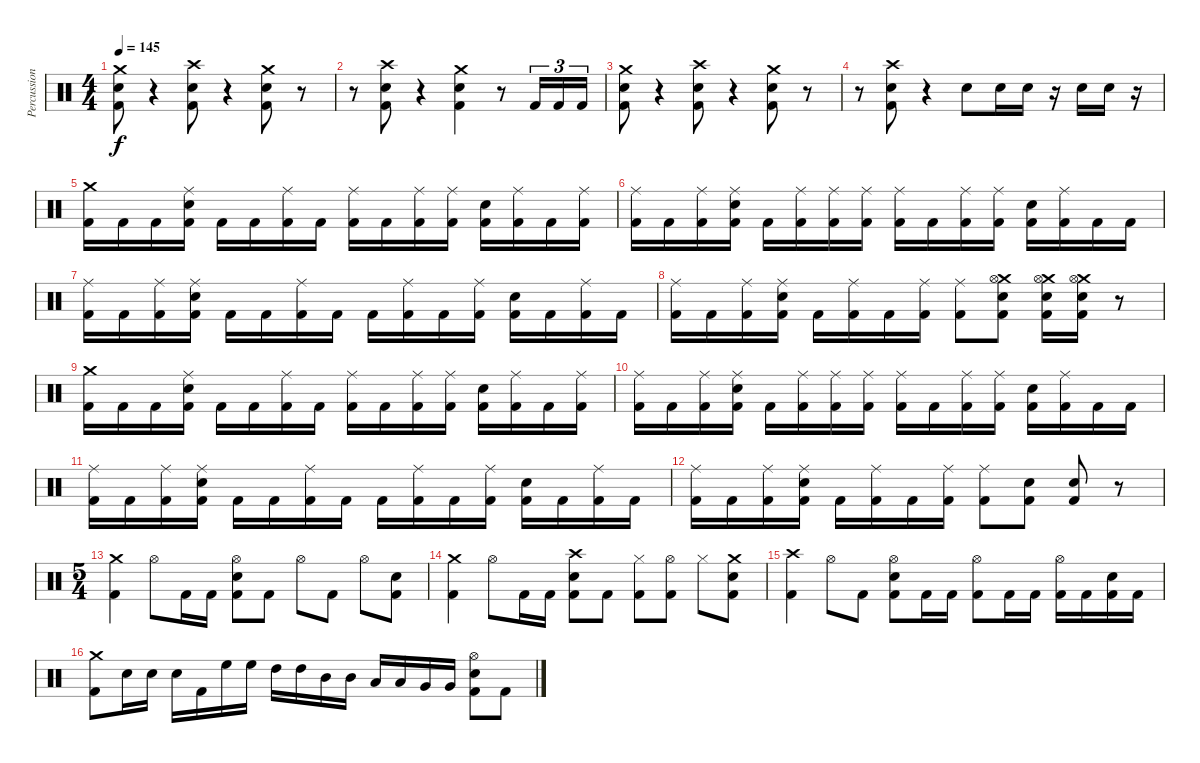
\track ("Percussion" "Percussion") {instrument percussion}
\staff {score}
\articulation defaults
\ts (4 4)
\tempo 145
\clef neutral
\ks c
("Crash medium (hit)" "Electric Snare (hit)" "Kick (hit) 2").8{dy f} r.4 ("Crash high (hit)" "Electric Snare (hit)" "Kick (hit) 2").8 r.4 ("Crash medium (hit)" "Electric Snare (hit)" "Kick (hit) 2").8 r.8 |
r.8 ("Crash high (hit)" "Electric Snare (hit)" "Kick (hit) 2").8 r.4 ("Crash medium (hit)" "Electric Snare (hit)" "Kick (hit) 2").4 r.8 "Kick (hit) 2".16{tu (3 2)} "Kick (hit) 2".16{tu (3 2)} "Kick (hit) 2".16{tu (3 2)} |
("Crash medium (hit)" "Electric Snare (hit)" "Kick (hit) 2").8 r.4 ("Crash high (hit)" "Electric Snare (hit)" "Kick (hit) 2").8 r.4 ("Crash medium (hit)" "Electric Snare (hit)" "Kick (hit) 2").8 r.8 |
r.8 ("Crash high (hit)" "Electric Snare (hit)" "Kick (hit) 2").8 r.4 "Electric Snare (hit)".8 "Electric Snare (hit)".16 "Electric Snare (hit)".16 r.16 "Electric Snare (hit)".16 "Electric Snare (hit)".16 r.16 |
("Crash medium (hit)" "Kick (hit) 2").16 "Kick (hit) 2".16 "Kick (hit) 2".16 ("Ride (middle)" "Electric Snare (hit)" "Kick (hit) 2").16 "Kick (hit) 2".16 "Kick (hit) 2".16 ("Ride (middle)" "Kick (hit) 2").16 "Kick (hit) 2".16 ("Ride (middle)" "Kick (hit) 2").16 "Kick (hit) 2".16 ("Ride (middle)" "Kick (hit) 2").16 ("Ride (middle)" "Kick (hit) 2").16 ("Electric Snare (hit)" "Kick (hit) 2").16 ("Ride (middle)" "Kick (hit) 2").16 "Kick (hit) 2".16 ("Ride (middle)" "Kick (hit) 2").16 |
("Ride (middle)" "Kick (hit) 2").16 "Kick (hit) 2".16 ("Ride (middle)" "Kick (hit) 2").16 ("Ride (middle)" "Electric Snare (hit)" "Kick (hit) 2").16 "Kick (hit) 2".16 ("Ride (middle)" "Kick (hit) 2").16 ("Ride (middle)" "Kick (hit) 2").16 ("Ride (middle)" "Kick (hit) 2").16 ("Ride (middle)" "Kick (hit) 2").16 "Kick (hit) 2".16 ("Ride (middle)" "Kick (hit) 2").16 ("Ride (middle)" "Kick (hit) 2").16 ("Electric Snare (hit)" "Kick (hit) 2").16 ("Ride (middle)" "Kick (hit) 2").16 "Kick (hit) 2".16 "Kick (hit) 2".16 |
("Ride (middle)" "Kick (hit) 2").16 "Kick (hit) 2".16 ("Ride (middle)" "Kick (hit) 2").16 ("Ride (middle)" "Electric Snare (hit)" "Kick (hit) 2").16 "Kick (hit) 2".16 "Kick (hit) 2".16 ("Ride (middle)" "Kick (hit) 2").16 "Kick (hit) 2".16 "Kick (hit) 2".16 ("Ride (middle)" "Kick (hit) 2").16 "Kick (hit) 2".16 ("Ride (middle)" "Kick (hit) 2").16 ("Electric Snare (hit)" "Kick (hit) 2").16 "Kick (hit) 2".16 ("Ride (middle)" "Kick (hit) 2").16 "Kick (hit) 2".16 |
("Ride (middle)" "Kick (hit) 2").16 "Kick (hit) 2".16 ("Ride (middle)" "Kick (hit) 2").16 ("Ride (middle)" "Electric Snare (hit)" "Kick (hit) 2").16 "Kick (hit) 2".16 ("Ride (middle)" "Kick (hit) 2").16 "Kick (hit) 2".16 ("Ride (middle)" "Kick (hit) 2").16 ("Ride (middle)" "Kick (hit) 2").8 ("Crash medium (hit)" "Hi-Hat (open)" "Electric Snare (hit)" "Kick (hit) 2").8 ("Crash medium (hit)" "Hi-Hat (open)" "Electric Snare (hit)" "Kick (hit) 2").16 ("Crash medium (hit)" "Hi-Hat (open)" "Electric Snare (hit)" "Kick (hit) 2").16 r.8 |
("Crash medium (hit)" "Kick (hit) 2").16 "Kick (hit) 2".16 "Kick (hit) 2".16 ("Ride (middle)" "Electric Snare (hit)" "Kick (hit) 2").16 "Kick (hit) 2".16 "Kick (hit) 2".16 ("Ride (middle)" "Kick (hit) 2").16 "Kick (hit) 2".16 ("Ride (middle)" "Kick (hit) 2").16 "Kick (hit) 2".16 ("Ride (middle)" "Kick (hit) 2").16 ("Ride (middle)" "Kick (hit) 2").16 ("Electric Snare (hit)" "Kick (hit) 2").16 ("Ride (middle)" "Kick (hit) 2").16 "Kick (hit) 2".16 ("Ride (middle)" "Kick (hit) 2").16 |
("Ride (middle)" "Kick (hit) 2").16 "Kick (hit) 2".16 ("Ride (middle)" "Kick (hit) 2").16 ("Ride (middle)" "Electric Snare (hit)" "Kick (hit) 2").16 "Kick (hit) 2".16 ("Ride (middle)" "Kick (hit) 2").16 ("Ride (middle)" "Kick (hit) 2").16 ("Ride (middle)" "Kick (hit) 2").16 ("Ride (middle)" "Kick (hit) 2").16 "Kick (hit) 2".16 ("Ride (middle)" "Kick (hit) 2").16 ("Ride (middle)" "Kick (hit) 2").16 ("Electric Snare (hit)" "Kick (hit) 2").16 ("Ride (middle)" "Kick (hit) 2").16 "Kick (hit) 2".16 "Kick (hit) 2".16 |
("Ride (middle)" "Kick (hit) 2").16 "Kick (hit) 2".16 ("Ride (middle)" "Kick (hit) 2").16 ("Ride (middle)" "Electric Snare (hit)" "Kick (hit) 2").16 "Kick (hit) 2".16 "Kick (hit) 2".16 ("Ride (middle)" "Kick (hit) 2").16 "Kick (hit) 2".16 "Kick (hit) 2".16 ("Ride (middle)" "Kick (hit) 2").16 "Kick (hit) 2".16 ("Ride (middle)" "Kick (hit) 2").16 ("Electric Snare (hit)" "Kick (hit) 2").16 "Kick (hit) 2".16 ("Ride (middle)" "Kick (hit) 2").16 "Kick (hit) 2".16 |
("Ride (middle)" "Kick (hit) 2").16 "Kick (hit) 2".16 ("Ride (middle)" "Kick (hit) 2").16 ("Ride (middle)" "Electric Snare (hit)" "Kick (hit) 2").16 "Kick (hit) 2".16 ("Ride (middle)" "Kick (hit) 2").16 "Kick (hit) 2".16 ("Ride (middle)" "Kick (hit) 2").16 ("Ride (middle)" "Kick (hit) 2").8 ("Electric Snare (hit)" "Kick (hit) 2").8 ("Electric Snare (hit)" "Kick (hit) 2").8 r.8 |
\ts (5 4)
("Crash medium (hit)" "Kick (hit) 2").4 "Hi-Hat (open)".8 "Kick (hit) 2".16 "Kick (hit) 2".16 ("Hi-Hat (open)" "Electric Snare (hit)" "Kick (hit) 2").8 "Kick (hit) 2".8 "Hi-Hat (open)".8 "Kick (hit) 2".8 "Hi-Hat (open)".8 ("Electric Snare (hit)" "Kick (hit) 2").8 |
("Crash medium (hit)" "Kick (hit) 2").4 "Hi-Hat (open)".8 "Kick (hit) 2".16 "Kick (hit) 2".16 ("Crash high (hit)" "Electric Snare (hit)" "Kick (hit) 2").8 "Kick (hit) 2".8 ("Hi-Hat (closed)" "Kick (hit) 2").8 ("Hi-Hat (open)" "Kick (hit) 2").8 "Hi-Hat (closed)".8 ("Crash medium (hit)" "Electric Snare (hit)" "Kick (hit) 2").8 |
("Crash high (hit)" "Kick (hit) 2").4 "Hi-Hat (open)".8 "Kick (hit) 2".8 ("Hi-Hat (open)" "Electric Snare (hit)" "Kick (hit) 2").8 "Kick (hit) 2".16 "Kick (hit) 2".16 ("Hi-Hat (open)" "Kick (hit) 2").8 "Kick (hit) 2".16 "Kick (hit) 2".16 ("Hi-Hat (open)" "Kick (hit) 2").16 "Kick (hit) 2".16 ("Electric Snare (hit)" "Kick (hit) 2").16 "Kick (hit) 2".16 |
("Crash medium (hit)" "Kick (hit) 2").8 "Electric Snare (hit)".16 "Electric Snare (hit)".16 "Electric Snare (hit)".16 "Kick (hit) 2".16 "High Floor Tom (hit)".16 "High Floor Tom (hit)".16 "High Tom (hit)".16 "High Tom (hit)".16 "Mid Tom (hit)".16 "Mid Tom (hit)".16 "Low Tom (hit)".16 "Low Tom (hit)".16 "Very Low Tom (hit)".16 "Very Low Tom (hit)".16 ("Hi-Hat (open)" "Electric Snare (hit)" "Kick (hit) 2").8 "Kick (hit) 2".8
